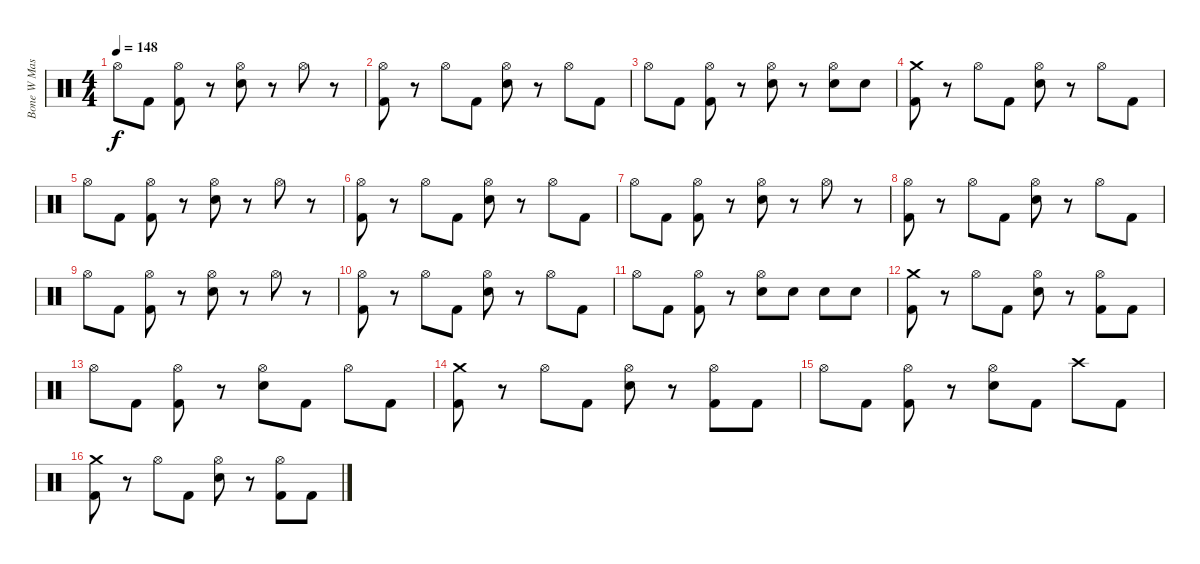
\track ("Bone W Mashine" "Bone W Mas") {instrument percussion}
\staff {score}
\articulation defaults
\ts (4 4)
\tempo 148
\clef neutral
\ks c "Hi-Hat (open)".8{dy f} "Kick (hit) 2".8
("Hi-Hat (open)" "Kick (hit) 2").8 r.8 ("Hi-Hat (open)" "Electric Snare (hit)").8 r.8 "Hi-Hat (open)".8 r.8 |
("Hi-Hat (open)" "Kick (hit) 2").8 r.8 "Hi-Hat (open)".8 "Kick (hit) 2".8 ("Hi-Hat (open)" "Electric Snare (hit)").8 r.8 "Hi-Hat (open)".8 "Kick (hit) 2".8 |
"Hi-Hat (open)".8 "Kick (hit) 2".8 ("Hi-Hat (open)" "Kick (hit) 2").8 r.8 ("Hi-Hat (open)" "Electric Snare (hit)").8 r.8 ("Hi-Hat (open)" "Electric Snare (hit)").8 "Electric Snare (hit)".8 |
("Crash medium (hit)" "Kick (hit) 2").8 r.8 "Hi-Hat (open)".8 "Kick (hit) 2".8 ("Hi-Hat (open)" "Electric Snare (hit)").8 r.8 "Hi-Hat (open)".8 "Kick (hit) 2".8 |
"Hi-Hat (open)".8 "Kick (hit) 2".8 ("Hi-Hat (open)" "Kick (hit) 2").8 r.8 ("Hi-Hat (open)" "Electric Snare (hit)").8 r.8 "Hi-Hat (open)".8 r.8 |
("Hi-Hat (open)" "Kick (hit) 2").8 r.8 "Hi-Hat (open)".8 "Kick (hit) 2".8 ("Hi-Hat (open)" "Electric Snare (hit)").8 r.8 "Hi-Hat (open)".8 "Kick (hit) 2".8 |
"Hi-Hat (open)".8 "Kick (hit) 2".8 ("Hi-Hat (open)" "Kick (hit) 2").8 r.8 ("Hi-Hat (open)" "Electric Snare (hit)").8 r.8 "Hi-Hat (open)".8 r.8 |
("Hi-Hat (open)" "Kick (hit) 2").8 r.8 "Hi-Hat (open)".8 "Kick (hit) 2".8 ("Hi-Hat (open)" "Electric Snare (hit)").8 r.8 "Hi-Hat (open)".8 "Kick (hit) 2".8 |
"Hi-Hat (open)".8 "Kick (hit) 2".8 ("Hi-Hat (open)" "Kick (hit) 2").8 r.8 ("Hi-Hat (open)" "Electric Snare (hit)").8 r.8 "Hi-Hat (open)".8 r.8 |
("Hi-Hat (open)" "Kick (hit) 2").8 r.8 "Hi-Hat (open)".8 "Kick (hit) 2".8 ("Hi-Hat (open)" "Electric Snare (hit)").8 r.8 "Hi-Hat (open)".8 "Kick (hit) 2".8 |
"Hi-Hat (open)".8 "Kick (hit) 2".8 ("Hi-Hat (open)" "Kick (hit) 2").8 r.8 ("Hi-Hat (open)" "Electric Snare (hit)").8 "Electric Snare (hit)".8 "Electric Snare (hit)".8 "Electric Snare (hit)".8 |
("Crash medium (hit)" "Kick (hit) 2").8 r.8 "Hi-Hat (open)".8 "Kick (hit) 2".8 ("Hi-Hat (open)" "Electric Snare (hit)").8 r.8 ("Hi-Hat (open)" "Kick (hit) 2").8 "Kick (hit) 2".8 |
"Hi-Hat (open)".8 "Kick (hit) 2".8 ("Hi-Hat (open)" "Kick (hit) 2").8 r.8 ("Hi-Hat (open)" "Electric Snare (hit)").8 "Kick (hit) 2".8 "Hi-Hat (open)".8 "Kick (hit) 2".8 |
("Crash medium (hit)" "Kick (hit) 2").8 r.8 "Hi-Hat (open)".8 "Kick (hit) 2".8 ("Hi-Hat (open)" "Electric Snare (hit)").8 r.8 ("Hi-Hat (open)" "Kick (hit) 2").8 "Kick (hit) 2".8 |
"Hi-Hat (open)".8 "Kick (hit) 2".8 ("Hi-Hat (open)" "Kick (hit) 2").8 r.8 ("Hi-Hat (open)" "Electric Snare (hit)").8 "Kick (hit) 2".8 "Crash high (hit)".8 "Kick (hit) 2".8 |
("Crash medium (hit)" "Kick (hit) 2").8 r.8 "Hi-Hat (open)".8 "Kick (hit) 2".8 ("Hi-Hat (open)" "Electric Snare (hit)").8 r.8 ("Hi-Hat (open)" "Kick (hit) 2").8 "Kick (hit) 2".8
